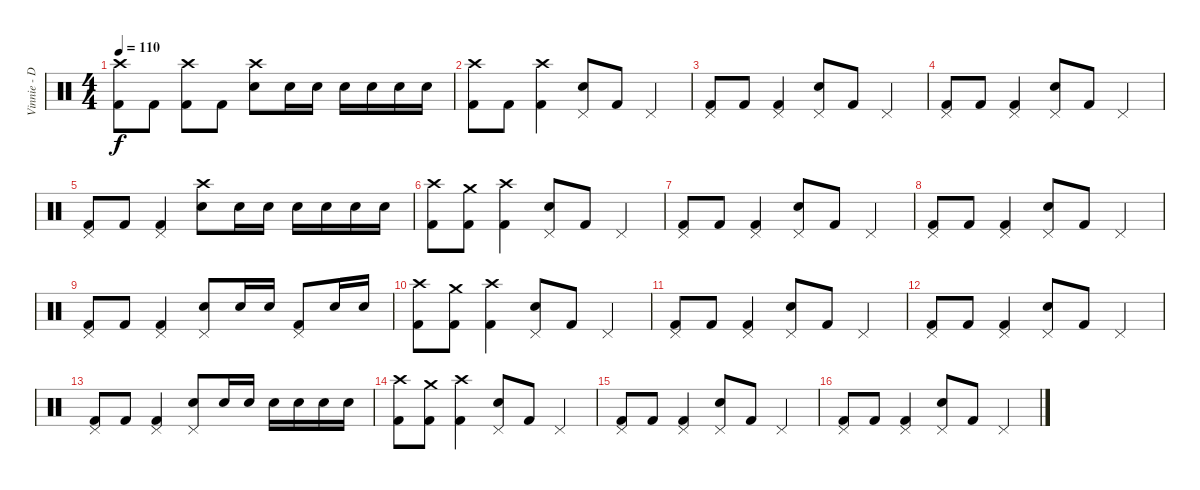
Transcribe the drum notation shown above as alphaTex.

\track ("Vinnie - Drums" "Vinnie - D") {instrument percussion}
\staff {score}
\articulation defaults
\ts (4 4)
\tempo 110
\clef neutral
\ks c
("Crash high (hit)" "Kick (hit) 2").8{dy f} "Kick (hit) 2".8 ("Crash high (hit)" "Kick (hit) 2").8 "Kick (hit) 2".8 ("Crash high (hit)" "Electric Snare (hit)").8 "Electric Snare (hit)".16 "Electric Snare (hit)".16 "Electric Snare (hit)".16 "Electric Snare (hit)".16 "Electric Snare (hit)".16 "Electric Snare (hit)".16 |
("Crash high (hit)" "Kick (hit) 2").8 "Kick (hit) 2".8 ("Crash high (hit)" "Kick (hit) 2").4 ("Pedal Hi-Hat (hit)" "Electric Snare (hit)").8 "Kick (hit) 2".8 "Pedal Hi-Hat (hit)".4 |
("Pedal Hi-Hat (hit)" "Kick (hit) 2").8 "Kick (hit) 2".8 ("Pedal Hi-Hat (hit)" "Kick (hit) 2").4 ("Pedal Hi-Hat (hit)" "Electric Snare (hit)").8 "Kick (hit) 2".8 "Pedal Hi-Hat (hit)".4 |
("Pedal Hi-Hat (hit)" "Kick (hit) 2").8 "Kick (hit) 2".8 ("Pedal Hi-Hat (hit)" "Kick (hit) 2").4 ("Pedal Hi-Hat (hit)" "Electric Snare (hit)").8 "Kick (hit) 2".8 "Pedal Hi-Hat (hit)".4 |
("Pedal Hi-Hat (hit)" "Kick (hit) 2").8 "Kick (hit) 2".8 ("Pedal Hi-Hat (hit)" "Kick (hit) 2").4 ("Crash high (hit)" "Electric Snare (hit)").8 "Electric Snare (hit)".16 "Electric Snare (hit)".16 "Electric Snare (hit)".16 "Electric Snare (hit)".16 "Electric Snare (hit)".16 "Electric Snare (hit)".16 |
("Crash high (hit)" "Kick (hit) 2").8 ("Crash medium (hit)" "Kick (hit) 2").8 ("Crash high (hit)" "Kick (hit) 2").4 ("Pedal Hi-Hat (hit)" "Electric Snare (hit)").8 "Kick (hit) 2".8 "Pedal Hi-Hat (hit)".4 |
("Pedal Hi-Hat (hit)" "Kick (hit) 2").8 "Kick (hit) 2".8 ("Pedal Hi-Hat (hit)" "Kick (hit) 2").4 ("Pedal Hi-Hat (hit)" "Electric Snare (hit)").8 "Kick (hit) 2".8 "Pedal Hi-Hat (hit)".4 |
("Pedal Hi-Hat (hit)" "Kick (hit) 2").8 "Kick (hit) 2".8 ("Pedal Hi-Hat (hit)" "Kick (hit) 2").4 ("Pedal Hi-Hat (hit)" "Electric Snare (hit)").8 "Kick (hit) 2".8 "Pedal Hi-Hat (hit)".4 |
("Pedal Hi-Hat (hit)" "Kick (hit) 2").8 "Kick (hit) 2".8 ("Pedal Hi-Hat (hit)" "Kick (hit) 2").4 ("Pedal Hi-Hat (hit)" "Electric Snare (hit)").8 "Electric Snare (hit)".16 "Electric Snare (hit)".16 ("Pedal Hi-Hat (hit)" "Kick (hit) 2").8 "Electric Snare (hit)".16 "Electric Snare (hit)".16 |
("Crash high (hit)" "Kick (hit) 2").8 ("Crash medium (hit)" "Kick (hit) 2").8 ("Crash high (hit)" "Kick (hit) 2").4 ("Pedal Hi-Hat (hit)" "Electric Snare (hit)").8 "Kick (hit) 2".8 "Pedal Hi-Hat (hit)".4 |
("Pedal Hi-Hat (hit)" "Kick (hit) 2").8 "Kick (hit) 2".8 ("Pedal Hi-Hat (hit)" "Kick (hit) 2").4 ("Pedal Hi-Hat (hit)" "Electric Snare (hit)").8 "Kick (hit) 2".8 "Pedal Hi-Hat (hit)".4 |
("Pedal Hi-Hat (hit)" "Kick (hit) 2").8 "Kick (hit) 2".8 ("Pedal Hi-Hat (hit)" "Kick (hit) 2").4 ("Pedal Hi-Hat (hit)" "Electric Snare (hit)").8 "Kick (hit) 2".8 "Pedal Hi-Hat (hit)".4 |
("Pedal Hi-Hat (hit)" "Kick (hit) 2").8 "Kick (hit) 2".8 ("Pedal Hi-Hat (hit)" "Kick (hit) 2").4 ("Pedal Hi-Hat (hit)" "Electric Snare (hit)").8 "Electric Snare (hit)".16 "Electric Snare (hit)".16 "Electric Snare (hit)".16 "Electric Snare (hit)".16 "Electric Snare (hit)".16 "Electric Snare (hit)".16 |
("Crash high (hit)" "Kick (hit) 2").8 ("Crash medium (hit)" "Kick (hit) 2").8 ("Crash high (hit)" "Kick (hit) 2").4 ("Pedal Hi-Hat (hit)" "Electric Snare (hit)").8 "Kick (hit) 2".8 "Pedal Hi-Hat (hit)".4 |
("Pedal Hi-Hat (hit)" "Kick (hit) 2").8 "Kick (hit) 2".8 ("Pedal Hi-Hat (hit)" "Kick (hit) 2").4 ("Pedal Hi-Hat (hit)" "Electric Snare (hit)").8 "Kick (hit) 2".8 "Pedal Hi-Hat (hit)".4 |
("Pedal Hi-Hat (hit)" "Kick (hit) 2").8 "Kick (hit) 2".8 ("Pedal Hi-Hat (hit)" "Kick (hit) 2").4 ("Pedal Hi-Hat (hit)" "Electric Snare (hit)").8 "Kick (hit) 2".8 "Pedal Hi-Hat (hit)".4
